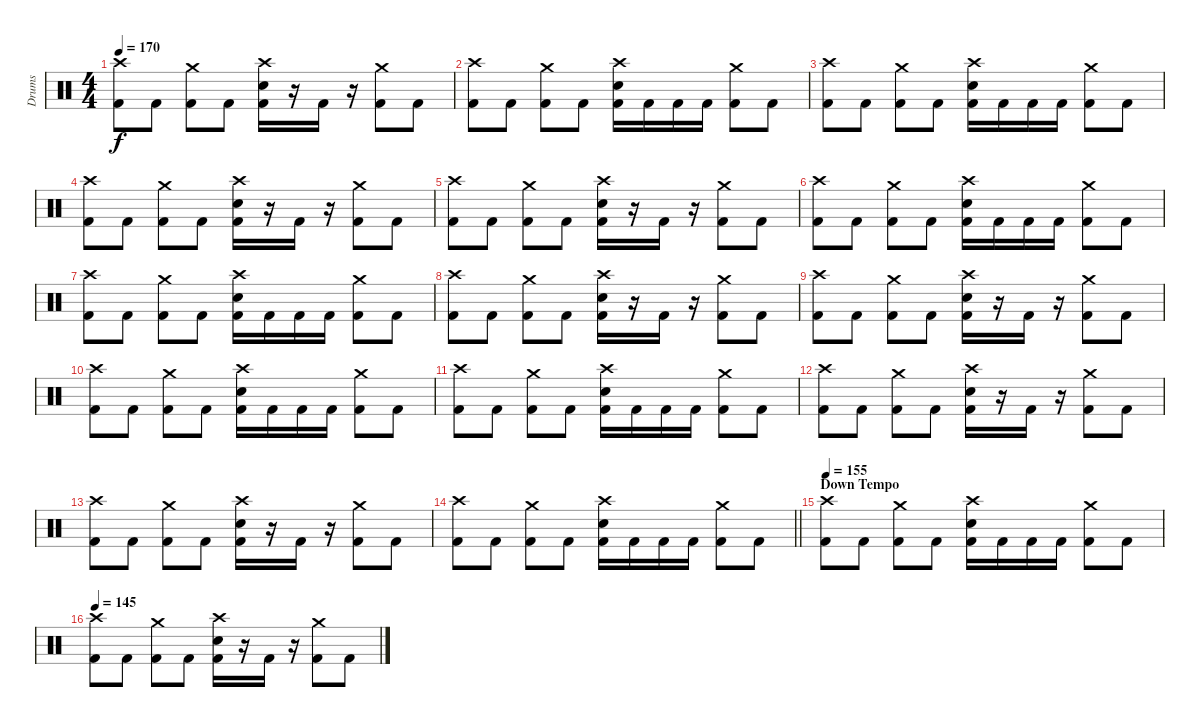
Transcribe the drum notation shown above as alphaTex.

\track ("Drums" "Drums") {instrument percussion}
\staff {score}
\articulation defaults
\ts (4 4)
\tempo 170
\clef neutral
\ks c
("Crash high (hit)" "Kick (hit) 2").8{dy f} "Kick (hit) 2".8 ("Crash medium (hit)" "Kick (hit) 2").8 "Kick (hit) 2".8 ("Crash high (hit)" "Electric Snare (hit)" "Kick (hit) 2").16 r.16 "Kick (hit) 2".16 r.16 ("Crash medium (hit)" "Kick (hit) 2").8 "Kick (hit) 2".8 |
("Crash high (hit)" "Kick (hit) 2").8 "Kick (hit) 2".8 ("Crash medium (hit)" "Kick (hit) 2").8 "Kick (hit) 2".8 ("Crash high (hit)" "Electric Snare (hit)" "Kick (hit) 2").16 "Kick (hit) 2".16 "Kick (hit) 2".16 "Kick (hit) 2".16 ("Crash medium (hit)" "Kick (hit) 2").8 "Kick (hit) 2".8 |
("Crash high (hit)" "Kick (hit) 2").8 "Kick (hit) 2".8 ("Crash medium (hit)" "Kick (hit) 2").8 "Kick (hit) 2".8 ("Crash high (hit)" "Electric Snare (hit)" "Kick (hit) 2").16 "Kick (hit) 2".16 "Kick (hit) 2".16 "Kick (hit) 2".16 ("Crash medium (hit)" "Kick (hit) 2").8 "Kick (hit) 2".8 |
("Crash high (hit)" "Kick (hit) 2").8 "Kick (hit) 2".8 ("Crash medium (hit)" "Kick (hit) 2").8 "Kick (hit) 2".8 ("Crash high (hit)" "Electric Snare (hit)" "Kick (hit) 2").16 r.16 "Kick (hit) 2".16 r.16 ("Crash medium (hit)" "Kick (hit) 2").8 "Kick (hit) 2".8 |
("Crash high (hit)" "Kick (hit) 2").8 "Kick (hit) 2".8 ("Crash medium (hit)" "Kick (hit) 2").8 "Kick (hit) 2".8 ("Crash high (hit)" "Electric Snare (hit)" "Kick (hit) 2").16 r.16 "Kick (hit) 2".16 r.16 ("Crash medium (hit)" "Kick (hit) 2").8 "Kick (hit) 2".8 |
("Crash high (hit)" "Kick (hit) 2").8 "Kick (hit) 2".8 ("Crash medium (hit)" "Kick (hit) 2").8 "Kick (hit) 2".8 ("Crash high (hit)" "Electric Snare (hit)" "Kick (hit) 2").16 "Kick (hit) 2".16 "Kick (hit) 2".16 "Kick (hit) 2".16 ("Crash medium (hit)" "Kick (hit) 2").8 "Kick (hit) 2".8 |
("Crash high (hit)" "Kick (hit) 2").8 "Kick (hit) 2".8 ("Crash medium (hit)" "Kick (hit) 2").8 "Kick (hit) 2".8 ("Crash high (hit)" "Electric Snare (hit)" "Kick (hit) 2").16 "Kick (hit) 2".16 "Kick (hit) 2".16 "Kick (hit) 2".16 ("Crash medium (hit)" "Kick (hit) 2").8 "Kick (hit) 2".8 |
("Crash high (hit)" "Kick (hit) 2").8 "Kick (hit) 2".8 ("Crash medium (hit)" "Kick (hit) 2").8 "Kick (hit) 2".8 ("Crash high (hit)" "Electric Snare (hit)" "Kick (hit) 2").16 r.16 "Kick (hit) 2".16 r.16 ("Crash medium (hit)" "Kick (hit) 2").8 "Kick (hit) 2".8 |
("Crash high (hit)" "Kick (hit) 2").8 "Kick (hit) 2".8 ("Crash medium (hit)" "Kick (hit) 2").8 "Kick (hit) 2".8 ("Crash high (hit)" "Electric Snare (hit)" "Kick (hit) 2").16 r.16 "Kick (hit) 2".16 r.16 ("Crash medium (hit)" "Kick (hit) 2").8 "Kick (hit) 2".8 |
("Crash high (hit)" "Kick (hit) 2").8 "Kick (hit) 2".8 ("Crash medium (hit)" "Kick (hit) 2").8 "Kick (hit) 2".8 ("Crash high (hit)" "Electric Snare (hit)" "Kick (hit) 2").16 "Kick (hit) 2".16 "Kick (hit) 2".16 "Kick (hit) 2".16 ("Crash medium (hit)" "Kick (hit) 2").8 "Kick (hit) 2".8 |
("Crash high (hit)" "Kick (hit) 2").8 "Kick (hit) 2".8 ("Crash medium (hit)" "Kick (hit) 2").8 "Kick (hit) 2".8 ("Crash high (hit)" "Electric Snare (hit)" "Kick (hit) 2").16 "Kick (hit) 2".16 "Kick (hit) 2".16 "Kick (hit) 2".16 ("Crash medium (hit)" "Kick (hit) 2").8 "Kick (hit) 2".8 |
("Crash high (hit)" "Kick (hit) 2").8 "Kick (hit) 2".8 ("Crash medium (hit)" "Kick (hit) 2").8 "Kick (hit) 2".8 ("Crash high (hit)" "Electric Snare (hit)" "Kick (hit) 2").16 r.16 "Kick (hit) 2".16 r.16 ("Crash medium (hit)" "Kick (hit) 2").8 "Kick (hit) 2".8 |
("Crash high (hit)" "Kick (hit) 2").8 "Kick (hit) 2".8 ("Crash medium (hit)" "Kick (hit) 2").8 "Kick (hit) 2".8 ("Crash high (hit)" "Electric Snare (hit)" "Kick (hit) 2").16 r.16 "Kick (hit) 2".16 r.16 ("Crash medium (hit)" "Kick (hit) 2").8 "Kick (hit) 2".8 |
\barLineRight lightlight
("Crash high (hit)" "Kick (hit) 2").8 "Kick (hit) 2".8 ("Crash medium (hit)" "Kick (hit) 2").8 "Kick (hit) 2".8 ("Crash high (hit)" "Electric Snare (hit)" "Kick (hit) 2").16 "Kick (hit) 2".16 "Kick (hit) 2".16 "Kick (hit) 2".16 ("Crash medium (hit)" "Kick (hit) 2").8 "Kick (hit) 2".8 |
\section ("" "Down Tempo")
\tempo 155
("Crash high (hit)" "Kick (hit) 2").8 "Kick (hit) 2".8 ("Crash medium (hit)" "Kick (hit) 2").8 "Kick (hit) 2".8 ("Crash high (hit)" "Electric Snare (hit)" "Kick (hit) 2").16 "Kick (hit) 2".16 "Kick (hit) 2".16 "Kick (hit) 2".16 ("Crash medium (hit)" "Kick (hit) 2").8 "Kick (hit) 2".8 |
\tempo 145
("Crash high (hit)" "Kick (hit) 2").8 "Kick (hit) 2".8 ("Crash medium (hit)" "Kick (hit) 2").8 "Kick (hit) 2".8 ("Crash high (hit)" "Electric Snare (hit)" "Kick (hit) 2").16 r.16 "Kick (hit) 2".16 r.16 ("Crash medium (hit)" "Kick (hit) 2").8 "Kick (hit) 2".8
